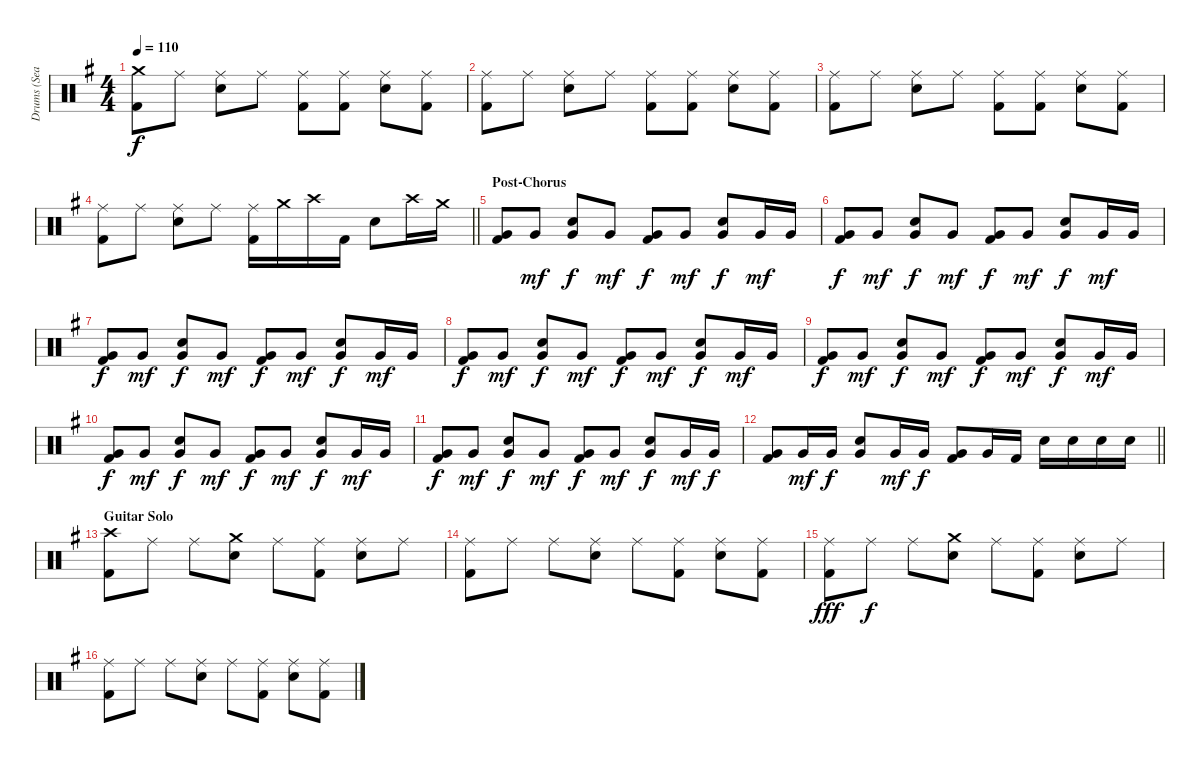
\track ("Drums (Sean)" "Drums (Sea") {instrument percussion}
\staff {score}
\articulation defaults
\ts (4 4)
\tempo 110
\clef neutral
\ks g
("Crash medium (hit)" "Kick (hit) 2").8{dy f} "Ride (middle)".8 ("Ride (middle)" "Snare (hit) 2").8 "Ride (middle)".8 ("Ride (middle)" "Kick (hit) 2").8 ("Ride (middle)" "Kick (hit) 2").8 ("Ride (middle)" "Snare (hit) 2").8 ("Ride (middle)" "Kick (hit) 2").8 |
("Ride (middle)" "Kick (hit) 2").8 "Ride (middle)".8 ("Ride (middle)" "Snare (hit) 2").8 "Ride (middle)".8 ("Ride (middle)" "Kick (hit) 2").8 ("Ride (middle)" "Kick (hit) 2").8 ("Ride (middle)" "Snare (hit) 2").8 ("Ride (middle)" "Kick (hit) 2").8 |
("Ride (middle)" "Kick (hit) 2").8 "Ride (middle)".8 ("Ride (middle)" "Snare (hit) 2").8 "Ride (middle)".8 ("Ride (middle)" "Kick (hit) 2").8 ("Ride (middle)" "Kick (hit) 2").8 ("Ride (middle)" "Snare (hit) 2").8 ("Ride (middle)" "Kick (hit) 2").8 |
\barLineRight lightlight
("Ride (middle)" "Kick (hit) 2").8 "Ride (middle)".8 ("Ride (middle)" "Snare (hit) 2").8 "Ride (middle)".8 ("Ride (middle)" "Kick (hit) 2").16 "Crash medium (hit)".16 "Crash high (hit)".16 "Kick (hit) 2".16 "Snare (hit) 2".8 "Crash high (hit)".16 "Crash medium (hit)".16 |
\section ("" "Post-Chorus")
("Very Low Tom (hit)" "Kick (hit) 2").8 "Very Low Tom (hit)".8{dy mf} ("Very Low Tom (hit)" "Snare (hit) 2").8{dy f} "Very Low Tom (hit)".8{dy mf} ("Very Low Tom (hit)" "Kick (hit) 2").8{dy f} "Very Low Tom (hit)".8{dy mf} ("Very Low Tom (hit)" "Snare (hit) 2").8{dy f} "Very Low Tom (hit)".16{dy mf} "Very Low Tom (hit)".16 |
("Very Low Tom (hit)" "Kick (hit) 2").8{dy f} "Very Low Tom (hit)".8{dy mf} ("Very Low Tom (hit)" "Snare (hit) 2").8{dy f} "Very Low Tom (hit)".8{dy mf} ("Very Low Tom (hit)" "Kick (hit) 2").8{dy f} "Very Low Tom (hit)".8{dy mf} ("Very Low Tom (hit)" "Snare (hit) 2").8{dy f} "Very Low Tom (hit)".16{dy mf} "Very Low Tom (hit)".16 |
("Very Low Tom (hit)" "Kick (hit) 2").8{dy f} "Very Low Tom (hit)".8{dy mf} ("Very Low Tom (hit)" "Snare (hit) 2").8{dy f} "Very Low Tom (hit)".8{dy mf} ("Very Low Tom (hit)" "Kick (hit) 2").8{dy f} "Very Low Tom (hit)".8{dy mf} ("Very Low Tom (hit)" "Snare (hit) 2").8{dy f} "Very Low Tom (hit)".16{dy mf} "Very Low Tom (hit)".16 |
("Very Low Tom (hit)" "Kick (hit) 2").8{dy f} "Very Low Tom (hit)".8{dy mf} ("Very Low Tom (hit)" "Snare (hit) 2").8{dy f} "Very Low Tom (hit)".8{dy mf} ("Very Low Tom (hit)" "Kick (hit) 2").8{dy f} "Very Low Tom (hit)".8{dy mf} ("Very Low Tom (hit)" "Snare (hit) 2").8{dy f} "Very Low Tom (hit)".16{dy mf} "Very Low Tom (hit)".16 |
("Very Low Tom (hit)" "Kick (hit) 2").8{dy f} "Very Low Tom (hit)".8{dy mf} ("Very Low Tom (hit)" "Snare (hit) 2").8{dy f} "Very Low Tom (hit)".8{dy mf} ("Very Low Tom (hit)" "Kick (hit) 2").8{dy f} "Very Low Tom (hit)".8{dy mf} ("Very Low Tom (hit)" "Snare (hit) 2").8{dy f} "Very Low Tom (hit)".16{dy mf} "Very Low Tom (hit)".16 |
("Very Low Tom (hit)" "Kick (hit) 2").8{dy f} "Very Low Tom (hit)".8{dy mf} ("Very Low Tom (hit)" "Snare (hit) 2").8{dy f} "Very Low Tom (hit)".8{dy mf} ("Very Low Tom (hit)" "Kick (hit) 2").8{dy f} "Very Low Tom (hit)".8{dy mf} ("Very Low Tom (hit)" "Snare (hit) 2").8{dy f} "Very Low Tom (hit)".16{dy mf} "Very Low Tom (hit)".16 |
("Very Low Tom (hit)" "Kick (hit) 2").8{dy f} "Very Low Tom (hit)".8{dy mf} ("Very Low Tom (hit)" "Snare (hit) 2").8{dy f} "Very Low Tom (hit)".8{dy mf} ("Very Low Tom (hit)" "Kick (hit) 2").8{dy f} "Very Low Tom (hit)".8{dy mf} ("Very Low Tom (hit)" "Snare (hit) 2").8{dy f} "Very Low Tom (hit)".16{dy mf} "Very Low Tom (hit)".16{dy f} |
\barLineRight lightlight
("Very Low Tom (hit)" "Kick (hit) 2").8 "Very Low Tom (hit)".16{dy mf} "Very Low Tom (hit)".16{dy f} ("Very Low Tom (hit)" "Snare (hit) 2").8 "Very Low Tom (hit)".16{dy mf} "Very Low Tom (hit)".16{dy f} ("Very Low Tom (hit)" "Kick (hit) 2").8 "Very Low Tom (hit)".16 "Kick (hit) 2".16 "Snare (hit) 2".16 "Snare (hit) 2".16 "Snare (hit) 2".16 "Snare (hit) 2".16 |
\section ("" "Guitar Solo")
("Crash high (hit)" "Kick (hit) 2").8 "Ride (middle)".8 "Ride (middle)".8 ("Crash medium (hit)" "Snare (hit) 2").8 "Ride (middle)".8 ("Ride (middle)" "Kick (hit) 2").8 ("Ride (middle)" "Snare (hit) 2").8 "Ride (middle)".8 |
("Ride (middle)" "Kick (hit) 2").8 "Ride (middle)".8 "Ride (middle)".8 ("Ride (middle)" "Snare (hit) 2").8 "Ride (middle)".8 ("Ride (middle)" "Kick (hit) 2").8 ("Ride (middle)" "Snare (hit) 2").8 ("Ride (middle)" "Kick (hit) 2").8 |
("Ride (middle)" "Kick (hit) 2").8{dy fff} "Ride (middle)".8{dy f} "Ride (middle)".8 ("Crash medium (hit)" "Snare (hit) 2").8 "Ride (middle)".8 ("Ride (middle)" "Kick (hit) 2").8 ("Ride (middle)" "Snare (hit) 2").8 "Ride (middle)".8 |
("Ride (middle)" "Kick (hit) 2").8 "Ride (middle)".8 "Ride (middle)".8 ("Ride (middle)" "Snare (hit) 2").8 "Ride (middle)".8 ("Ride (middle)" "Kick (hit) 2").8 ("Ride (middle)" "Snare (hit) 2").8 ("Ride (middle)" "Kick (hit) 2").8
